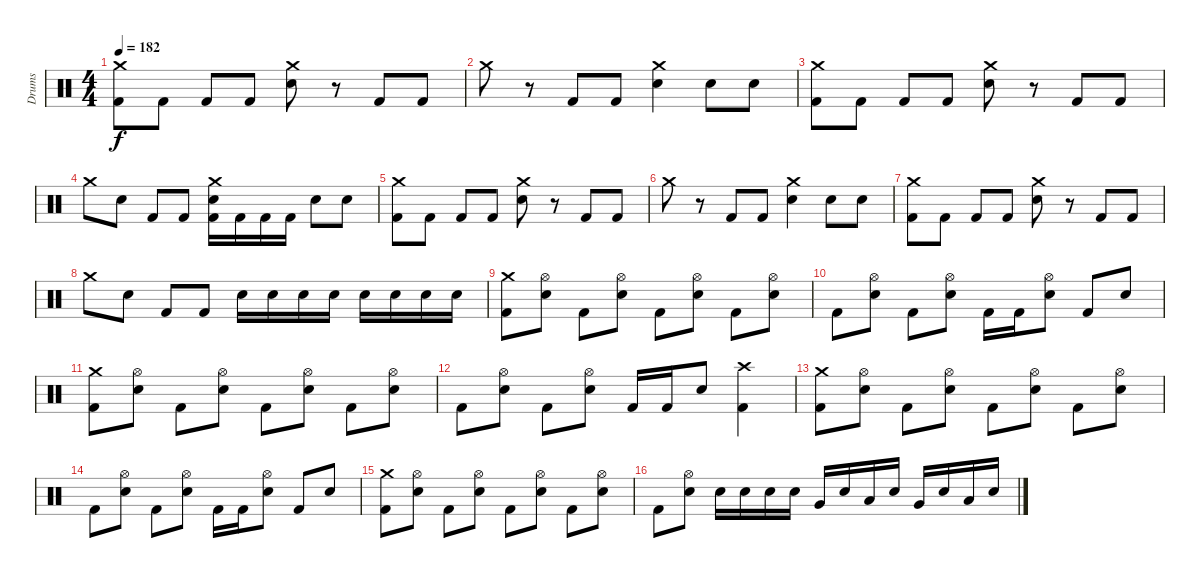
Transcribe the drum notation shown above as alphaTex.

\track ("Drums" "Drums") {instrument percussion}
\staff
\articulation defaults
\ts (4 4)
\tempo 182
\clef neutral
\ks c
("Crash medium (hit)" "Kick (hit) 2").8{dy f} "Kick (hit) 2".8 "Kick (hit) 2".8 "Kick (hit) 2".8 ("Crash medium (hit)" "Electric Snare (hit)").8 r.8 "Kick (hit) 2".8 "Kick (hit) 2".8 |
"Crash medium (hit)".8 r.8 "Kick (hit) 2".8 "Kick (hit) 2".8 ("Crash medium (hit)" "Electric Snare (hit)").4 "Electric Snare (hit)".8 "Electric Snare (hit)".8 |
("Crash medium (hit)" "Kick (hit) 2").8 "Kick (hit) 2".8 "Kick (hit) 2".8 "Kick (hit) 2".8 ("Crash medium (hit)" "Electric Snare (hit)").8 r.8 "Kick (hit) 2".8 "Kick (hit) 2".8 |
"Crash medium (hit)".8 "Electric Snare (hit)".8 "Kick (hit) 2".8 "Kick (hit) 2".8 ("Crash medium (hit)" "Electric Snare (hit)" "Kick (hit) 2").16 "Kick (hit) 2".16 "Kick (hit) 2".16 "Kick (hit) 2".16 "Electric Snare (hit)".8 "Electric Snare (hit)".8 |
("Crash medium (hit)" "Kick (hit) 2").8 "Kick (hit) 2".8 "Kick (hit) 2".8 "Kick (hit) 2".8 ("Crash medium (hit)" "Electric Snare (hit)").8 r.8 "Kick (hit) 2".8 "Kick (hit) 2".8 |
"Crash medium (hit)".8 r.8 "Kick (hit) 2".8 "Kick (hit) 2".8 ("Crash medium (hit)" "Electric Snare (hit)").4 "Electric Snare (hit)".8 "Electric Snare (hit)".8 |
("Crash medium (hit)" "Kick (hit) 2").8 "Kick (hit) 2".8 "Kick (hit) 2".8 "Kick (hit) 2".8 ("Crash medium (hit)" "Electric Snare (hit)").8 r.8 "Kick (hit) 2".8 "Kick (hit) 2".8 |
"Crash medium (hit)".8 "Electric Snare (hit)".8 "Kick (hit) 2".8 "Kick (hit) 2".8 "Electric Snare (hit)".16 "Electric Snare (hit)".16 "Electric Snare (hit)".16 "Electric Snare (hit)".16 "Electric Snare (hit)".16 "Electric Snare (hit)".16 "Electric Snare (hit)".16 "Electric Snare (hit)".16 |
("Crash medium (hit)" "Kick (hit) 2").8 ("Hi-Hat (open)" "Electric Snare (hit)").8 "Kick (hit) 2".8 ("Hi-Hat (open)" "Electric Snare (hit)").8 "Kick (hit) 2".8 ("Hi-Hat (open)" "Electric Snare (hit)").8 "Kick (hit) 2".8 ("Hi-Hat (open)" "Electric Snare (hit)").8 |
"Kick (hit) 2".8 ("Hi-Hat (open)" "Electric Snare (hit)").8 "Kick (hit) 2".8 ("Hi-Hat (open)" "Electric Snare (hit)").8 "Kick (hit) 2".16 "Kick (hit) 2".16 ("Hi-Hat (open)" "Electric Snare (hit)").8 "Kick (hit) 2".8 "Electric Snare (hit)".8 |
("Crash medium (hit)" "Kick (hit) 2").8 ("Hi-Hat (open)" "Electric Snare (hit)").8 "Kick (hit) 2".8 ("Hi-Hat (open)" "Electric Snare (hit)").8 "Kick (hit) 2".8 ("Hi-Hat (open)" "Electric Snare (hit)").8 "Kick (hit) 2".8 ("Hi-Hat (open)" "Electric Snare (hit)").8 |
"Kick (hit) 2".8 ("Hi-Hat (open)" "Electric Snare (hit)").8 "Kick (hit) 2".8 ("Hi-Hat (open)" "Electric Snare (hit)").8 "Kick (hit) 2".16 "Kick (hit) 2".16 "Electric Snare (hit)".8 ("Crash high (hit)" "Kick (hit) 2").4 |
("Crash medium (hit)" "Kick (hit) 2").8 ("Hi-Hat (open)" "Electric Snare (hit)").8 "Kick (hit) 2".8 ("Hi-Hat (open)" "Electric Snare (hit)").8 "Kick (hit) 2".8 ("Hi-Hat (open)" "Electric Snare (hit)").8 "Kick (hit) 2".8 ("Hi-Hat (open)" "Electric Snare (hit)").8 |
"Kick (hit) 2".8 ("Hi-Hat (open)" "Electric Snare (hit)").8 "Kick (hit) 2".8 ("Hi-Hat (open)" "Electric Snare (hit)").8 "Kick (hit) 2".16 "Kick (hit) 2".16 ("Hi-Hat (open)" "Electric Snare (hit)").8 "Kick (hit) 2".8 "Electric Snare (hit)".8 |
("Crash medium (hit)" "Kick (hit) 2").8 ("Hi-Hat (open)" "Electric Snare (hit)").8 "Kick (hit) 2".8 ("Hi-Hat (open)" "Electric Snare (hit)").8 "Kick (hit) 2".8 ("Hi-Hat (open)" "Electric Snare (hit)").8 "Kick (hit) 2".8 ("Hi-Hat (open)" "Electric Snare (hit)").8 |
"Kick (hit) 2".8 ("Hi-Hat (open)" "Electric Snare (hit)").8 "Electric Snare (hit)".16 "Electric Snare (hit)".16 "Electric Snare (hit)".16 "Electric Snare (hit)".16 "Very Low Tom (hit)".16 "Electric Snare (hit)".16 "Low Floor Tom (hit)".16 "Electric Snare (hit)".16 "Very Low Tom (hit)".16 "Electric Snare (hit)".16 "Low Floor Tom (hit)".16 "Electric Snare (hit)".16
